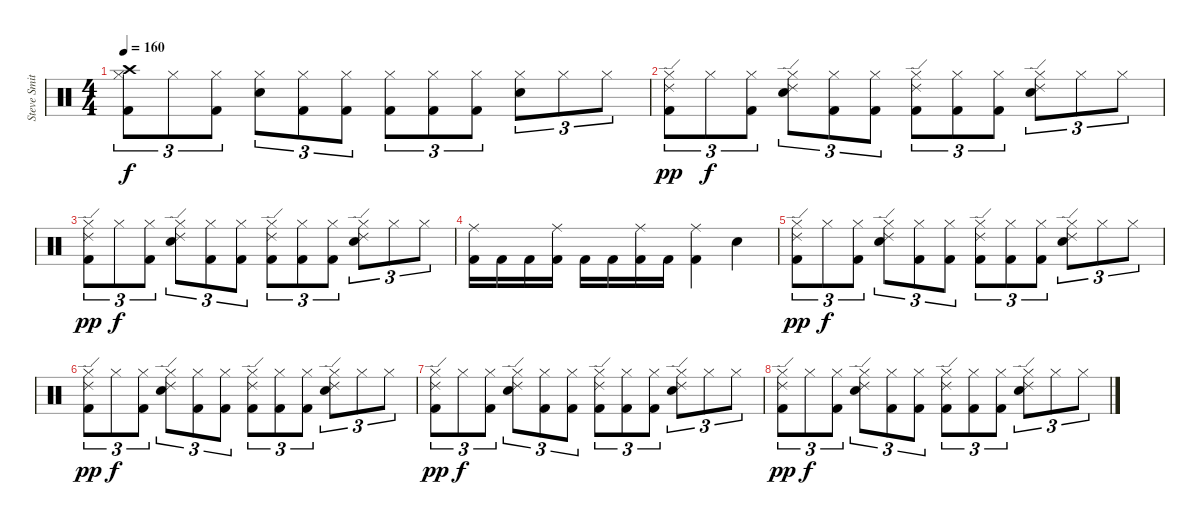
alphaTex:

\track ("Steve Smith" "Steve Smit") {instrument percussion}
\staff {score}
\articulation defaults
\ts (4 4)
\tempo 160
\clef neutral
\ks c
("Hi-Hat (closed)" "Crash high (hit)" "Kick (hit) 2").8{tu (3 2) dy f} "Hi-Hat (closed)".8{tu (3 2)} ("Hi-Hat (closed)" "Kick (hit) 2").8{tu (3 2)} ("Hi-Hat (closed)" "Snare (hit) 2").8{tu (3 2)} ("Hi-Hat (closed)" "Kick (hit) 2").8{tu (3 2)} ("Hi-Hat (closed)" "Kick (hit) 2").8{tu (3 2)} ("Hi-Hat (closed)" "Kick (hit) 2").8{tu (3 2)} ("Hi-Hat (closed)" "Kick (hit) 2").8{tu (3 2)} ("Hi-Hat (closed)" "Kick (hit) 2").8{tu (3 2)} ("Hi-Hat (closed)" "Snare (hit) 2").8{tu (3 2)} "Hi-Hat (closed)".8{tu (3 2)} "Hi-Hat (closed)".8{tu (3 2)} |
("Hi-Hat (closed)" "Ride (edge) 2" "Kick (hit) 2").8{tu (3 2) dy pp} "Hi-Hat (closed)".8{tu (3 2) dy f} ("Hi-Hat (closed)" "Kick (hit) 2").8{tu (3 2)} ("Hi-Hat (closed)" "Ride (edge) 2" "Snare (hit) 2").8{tu (3 2)} ("Hi-Hat (closed)" "Kick (hit) 2").8{tu (3 2)} ("Hi-Hat (closed)" "Kick (hit) 2").8{tu (3 2)} ("Hi-Hat (closed)" "Ride (edge) 2" "Kick (hit) 2").8{tu (3 2)} ("Hi-Hat (closed)" "Kick (hit) 2").8{tu (3 2)} ("Hi-Hat (closed)" "Kick (hit) 2").8{tu (3 2)} ("Hi-Hat (closed)" "Ride (edge) 2" "Snare (hit) 2").8{tu (3 2)} "Hi-Hat (closed)".8{tu (3 2)} "Hi-Hat (closed)".8{tu (3 2)} |
("Hi-Hat (closed)" "Ride (edge) 2" "Kick (hit) 2").8{tu (3 2) dy pp} "Hi-Hat (closed)".8{tu (3 2) dy f} ("Hi-Hat (closed)" "Kick (hit) 2").8{tu (3 2)} ("Hi-Hat (closed)" "Ride (edge) 2" "Snare (hit) 2").8{tu (3 2)} ("Hi-Hat (closed)" "Kick (hit) 2").8{tu (3 2)} ("Hi-Hat (closed)" "Kick (hit) 2").8{tu (3 2)} ("Hi-Hat (closed)" "Ride (edge) 2" "Kick (hit) 2").8{tu (3 2)} ("Hi-Hat (closed)" "Kick (hit) 2").8{tu (3 2)} ("Hi-Hat (closed)" "Kick (hit) 2").8{tu (3 2)} ("Hi-Hat (closed)" "Ride (edge) 2" "Snare (hit) 2").8{tu (3 2)} "Hi-Hat (closed)".8{tu (3 2)} "Hi-Hat (closed)".8{tu (3 2)} |
("Ride (middle)" "Kick (hit) 2").16 "Kick (hit) 2".16 "Kick (hit) 2".16 ("Ride (middle)" "Kick (hit) 2").16 "Kick (hit) 2".16 "Kick (hit) 2".16 ("Ride (middle)" "Kick (hit) 2").16 "Kick (hit) 2".16 ("Ride (middle)" "Kick (hit) 2").4 "Snare (hit) 2".4 |
("Hi-Hat (closed)" "Ride (edge) 2" "Kick (hit) 2").8{tu (3 2) dy pp} "Hi-Hat (closed)".8{tu (3 2) dy f} ("Hi-Hat (closed)" "Kick (hit) 2").8{tu (3 2)} ("Hi-Hat (closed)" "Ride (edge) 2" "Snare (hit) 2").8{tu (3 2)} ("Hi-Hat (closed)" "Kick (hit) 2").8{tu (3 2)} ("Hi-Hat (closed)" "Kick (hit) 2").8{tu (3 2)} ("Hi-Hat (closed)" "Ride (edge) 2" "Kick (hit) 2").8{tu (3 2)} ("Hi-Hat (closed)" "Kick (hit) 2").8{tu (3 2)} ("Hi-Hat (closed)" "Kick (hit) 2").8{tu (3 2)} ("Hi-Hat (closed)" "Ride (edge) 2" "Snare (hit) 2").8{tu (3 2)} "Hi-Hat (closed)".8{tu (3 2)} "Hi-Hat (closed)".8{tu (3 2)} |
("Hi-Hat (closed)" "Ride (edge) 2" "Kick (hit) 2").8{tu (3 2) dy pp} "Hi-Hat (closed)".8{tu (3 2) dy f} ("Hi-Hat (closed)" "Kick (hit) 2").8{tu (3 2)} ("Hi-Hat (closed)" "Ride (edge) 2" "Snare (hit) 2").8{tu (3 2)} ("Hi-Hat (closed)" "Kick (hit) 2").8{tu (3 2)} ("Hi-Hat (closed)" "Kick (hit) 2").8{tu (3 2)} ("Hi-Hat (closed)" "Ride (edge) 2" "Kick (hit) 2").8{tu (3 2)} ("Hi-Hat (closed)" "Kick (hit) 2").8{tu (3 2)} ("Hi-Hat (closed)" "Kick (hit) 2").8{tu (3 2)} ("Hi-Hat (closed)" "Ride (edge) 2" "Snare (hit) 2").8{tu (3 2)} "Hi-Hat (closed)".8{tu (3 2)} "Hi-Hat (closed)".8{tu (3 2)} |
("Hi-Hat (closed)" "Ride (edge) 2" "Kick (hit) 2").8{tu (3 2) dy pp} "Hi-Hat (closed)".8{tu (3 2) dy f} ("Hi-Hat (closed)" "Kick (hit) 2").8{tu (3 2)} ("Hi-Hat (closed)" "Ride (edge) 2" "Snare (hit) 2").8{tu (3 2)} ("Hi-Hat (closed)" "Kick (hit) 2").8{tu (3 2)} ("Hi-Hat (closed)" "Kick (hit) 2").8{tu (3 2)} ("Hi-Hat (closed)" "Ride (edge) 2" "Kick (hit) 2").8{tu (3 2)} ("Hi-Hat (closed)" "Kick (hit) 2").8{tu (3 2)} ("Hi-Hat (closed)" "Kick (hit) 2").8{tu (3 2)} ("Hi-Hat (closed)" "Ride (edge) 2" "Snare (hit) 2").8{tu (3 2)} "Hi-Hat (closed)".8{tu (3 2)} "Hi-Hat (closed)".8{tu (3 2)} |
("Hi-Hat (closed)" "Ride (edge) 2" "Kick (hit) 2").8{tu (3 2) dy pp} "Hi-Hat (closed)".8{tu (3 2) dy f} ("Hi-Hat (closed)" "Kick (hit) 2").8{tu (3 2)} ("Hi-Hat (closed)" "Ride (edge) 2" "Snare (hit) 2").8{tu (3 2)} ("Hi-Hat (closed)" "Kick (hit) 2").8{tu (3 2)} ("Hi-Hat (closed)" "Kick (hit) 2").8{tu (3 2)} ("Hi-Hat (closed)" "Ride (edge) 2" "Kick (hit) 2").8{tu (3 2)} ("Hi-Hat (closed)" "Kick (hit) 2").8{tu (3 2)} ("Hi-Hat (closed)" "Kick (hit) 2").8{tu (3 2)} ("Hi-Hat (closed)" "Ride (edge) 2" "Snare (hit) 2").8{tu (3 2)} "Hi-Hat (closed)".8{tu (3 2)} "Hi-Hat (closed)".8{tu (3 2)}
